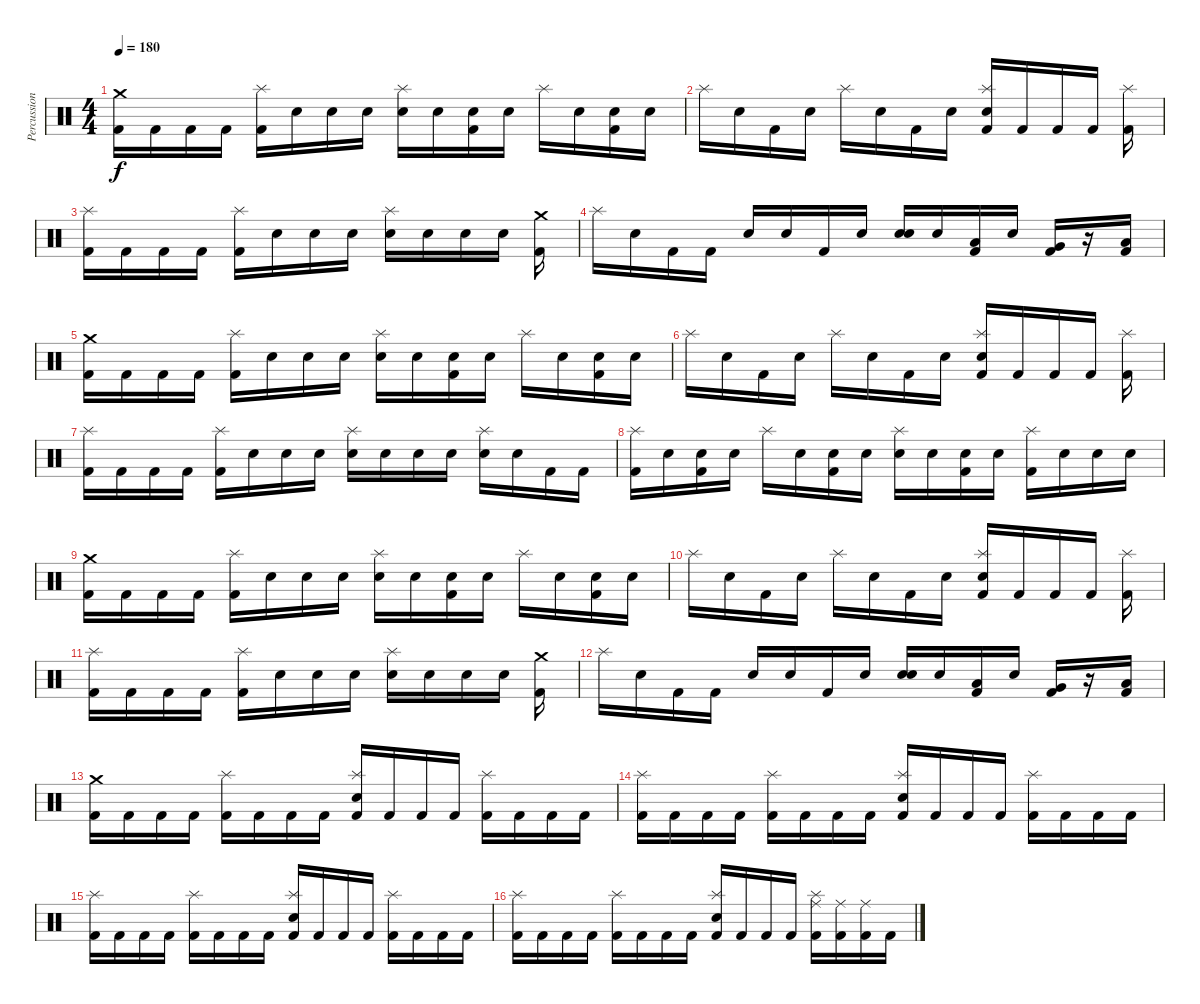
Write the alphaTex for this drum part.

\track ("Percussion" "Percussion") {instrument percussion}
\staff {score}
\articulation defaults
\ts (4 4)
\tempo 180
\clef neutral
\ks c
("Crash medium (hit)" "Kick (hit) 2").16{dy f} "Kick (hit) 2".16 "Kick (hit) 2".16 "Kick (hit) 2".16 ("Splash (hit)" "Kick (hit) 2").16 "Snare (hit)".16 "Snare (hit)".16 "Snare (hit)".16 ("Splash (hit)" "Snare (hit) 2").16 "Snare (hit)".16 ("Snare (hit)" "Kick (hit) 2").16 "Snare (hit)".16 "Splash (hit)".16 "Snare (hit)".16 ("Snare (hit)" "Kick (hit) 2").16 "Snare (hit)".16 |
"Splash (hit)".16 "Snare (hit)".16 "Kick (hit) 2".16 "Snare (hit)".16 "Splash (hit)".16 "Snare (hit)".16 "Kick (hit) 2".16 "Snare (hit)".16 ("Kick (hit) 2" "Snare (hit) 2" "Splash (hit)").16 "Kick (hit) 2".16 "Kick (hit) 2".16 "Kick (hit) 2".16 ("Kick (hit) 2" "Splash (hit)").16 |
("Splash (hit)" "Kick (hit) 2").16 "Kick (hit) 2".16 "Kick (hit) 2".16 "Kick (hit) 2".16 ("Splash (hit)" "Kick (hit) 2").16 "Snare (hit)".16 "Snare (hit)".16 "Snare (hit)".16 ("Splash (hit)" "Snare (hit) 2").16 "Snare (hit)".16 "Snare (hit)".16 "Snare (hit)".16 ("Crash medium (hit)" "Kick (hit) 2").16 |
"Splash (hit)".16 "Snare (hit)".16 "Kick (hit) 2".16 "Kick (hit) 2".16 "Snare (hit) 2".16 "Snare (hit)".16 "Kick (hit) 2".16 "Snare (hit)".16 ("Snare (hit) 2" "Snare (hit)").16 "Snare (hit)".16 ("Low Tom (hit)" "Kick (hit) 2").16 "Snare (hit)".16 ("Very Low Tom (hit)" "Kick (hit) 2").16 r.16 ("Low Floor Tom (hit)" "Kick (hit) 2").16 |
("Crash medium (hit)" "Kick (hit) 2").16 "Kick (hit) 2".16 "Kick (hit) 2".16 "Kick (hit) 2".16 ("Splash (hit)" "Kick (hit) 2").16 "Snare (hit)".16 "Snare (hit)".16 "Snare (hit)".16 ("Splash (hit)" "Snare (hit) 2").16 "Snare (hit)".16 ("Snare (hit)" "Kick (hit) 2").16 "Snare (hit)".16 "Splash (hit)".16 "Snare (hit)".16 ("Snare (hit)" "Kick (hit) 2").16 "Snare (hit)".16 |
"Splash (hit)".16 "Snare (hit)".16 "Kick (hit) 2".16 "Snare (hit)".16 "Splash (hit)".16 "Snare (hit)".16 "Kick (hit) 2".16 "Snare (hit)".16 ("Kick (hit) 2" "Snare (hit) 2" "Splash (hit)").16 "Kick (hit) 2".16 "Kick (hit) 2".16 "Kick (hit) 2".16 ("Kick (hit) 2" "Splash (hit)").16 |
("Splash (hit)" "Kick (hit) 2").16 "Kick (hit) 2".16 "Kick (hit) 2".16 "Kick (hit) 2".16 ("Splash (hit)" "Kick (hit) 2").16 "Snare (hit)".16 "Snare (hit)".16 "Snare (hit)".16 ("Splash (hit)" "Snare (hit) 2").16 "Snare (hit)".16 "Snare (hit)".16 "Snare (hit)".16 ("Splash (hit)" "Snare (hit)").16 "Snare (hit)".16 "Kick (hit) 2".16 "Kick (hit) 2".16 |
("Splash (hit)" "Kick (hit) 2").16 "Snare (hit)".16 ("Kick (hit) 2" "Snare (hit)").16 "Snare (hit)".16 "Splash (hit)".16 "Snare (hit)".16 ("Kick (hit) 2" "Snare (hit)").16 "Snare (hit)".16 ("Snare (hit) 2" "Splash (hit)").16 "Snare (hit)".16 ("Kick (hit) 2" "Snare (hit)").16 "Snare (hit)".16 ("Kick (hit) 2" "Splash (hit)").16 "Snare (hit)".16 "Snare (hit)".16 "Snare (hit)".16 |
("Crash medium (hit)" "Kick (hit) 2").16 "Kick (hit) 2".16 "Kick (hit) 2".16 "Kick (hit) 2".16 ("Splash (hit)" "Kick (hit) 2").16 "Snare (hit)".16 "Snare (hit)".16 "Snare (hit)".16 ("Splash (hit)" "Snare (hit) 2").16 "Snare (hit)".16 ("Snare (hit)" "Kick (hit) 2").16 "Snare (hit)".16 "Splash (hit)".16 "Snare (hit)".16 ("Snare (hit)" "Kick (hit) 2").16 "Snare (hit)".16 |
"Splash (hit)".16 "Snare (hit)".16 "Kick (hit) 2".16 "Snare (hit)".16 "Splash (hit)".16 "Snare (hit)".16 "Kick (hit) 2".16 "Snare (hit)".16 ("Kick (hit) 2" "Snare (hit) 2" "Splash (hit)").16 "Kick (hit) 2".16 "Kick (hit) 2".16 "Kick (hit) 2".16 ("Kick (hit) 2" "Splash (hit)").16 |
("Splash (hit)" "Kick (hit) 2").16 "Kick (hit) 2".16 "Kick (hit) 2".16 "Kick (hit) 2".16 ("Splash (hit)" "Kick (hit) 2").16 "Snare (hit)".16 "Snare (hit)".16 "Snare (hit)".16 ("Splash (hit)" "Snare (hit) 2").16 "Snare (hit)".16 "Snare (hit)".16 "Snare (hit)".16 ("Crash medium (hit)" "Kick (hit) 2").16 |
"Splash (hit)".16 "Snare (hit)".16 "Kick (hit) 2".16 "Kick (hit) 2".16 "Snare (hit) 2".16 "Snare (hit)".16 "Kick (hit) 2".16 "Snare (hit)".16 ("Snare (hit) 2" "Snare (hit)").16 "Snare (hit)".16 ("Low Tom (hit)" "Kick (hit) 2").16 "Snare (hit)".16 ("Very Low Tom (hit)" "Kick (hit) 2").16 r.16 ("Low Floor Tom (hit)" "Kick (hit) 2").16 |
("Kick (hit) 2" "Crash medium (hit)").16 "Kick (hit) 2".16 "Kick (hit) 2".16 "Kick (hit) 2".16 ("Kick (hit) 2" "Splash (hit)").16 "Kick (hit) 2".16 "Kick (hit) 2".16 "Kick (hit) 2".16 ("Kick (hit) 2" "Snare (hit) 2" "Splash (hit)").16 "Kick (hit) 2".16 "Kick (hit) 2".16 "Kick (hit) 2".16 ("Kick (hit) 2" "Splash (hit)").16 "Kick (hit) 2".16 "Kick (hit) 2".16 "Kick (hit) 2".16 |
("Kick (hit) 2" "Splash (hit)").16 "Kick (hit) 2".16 "Kick (hit) 2".16 "Kick (hit) 2".16 ("Kick (hit) 2" "Splash (hit)").16 "Kick (hit) 2".16 "Kick (hit) 2".16 "Kick (hit) 2".16 ("Kick (hit) 2" "Snare (hit) 2" "Splash (hit)").16 "Kick (hit) 2".16 "Kick (hit) 2".16 "Kick (hit) 2".16 ("Kick (hit) 2" "Splash (hit)").16 "Kick (hit) 2".16 "Kick (hit) 2".16 "Kick (hit) 2".16 |
("Kick (hit) 2" "Splash (hit)").16 "Kick (hit) 2".16 "Kick (hit) 2".16 "Kick (hit) 2".16 ("Kick (hit) 2" "Splash (hit)").16 "Kick (hit) 2".16 "Kick (hit) 2".16 "Kick (hit) 2".16 ("Kick (hit) 2" "Snare (hit) 2" "Splash (hit)").16 "Kick (hit) 2".16 "Kick (hit) 2".16 "Kick (hit) 2".16 ("Kick (hit) 2" "Splash (hit)").16 "Kick (hit) 2".16 "Kick (hit) 2".16 "Kick (hit) 2".16 |
("Kick (hit) 2" "Splash (hit)").16 "Kick (hit) 2".16 "Kick (hit) 2".16 "Kick (hit) 2".16 ("Kick (hit) 2" "Splash (hit)").16 "Kick (hit) 2".16 "Kick (hit) 2".16 "Kick (hit) 2".16 ("Kick (hit) 2" "Snare (hit) 2" "Splash (hit)").16 "Kick (hit) 2".16 "Kick (hit) 2".16 "Kick (hit) 2".16 ("Kick (hit) 2" "Splash (hit)" "Ride (middle)").16 ("Kick (hit) 2" "Ride (middle)").16 ("Kick (hit) 2" "Ride (middle)").16 "Kick (hit) 2".16
